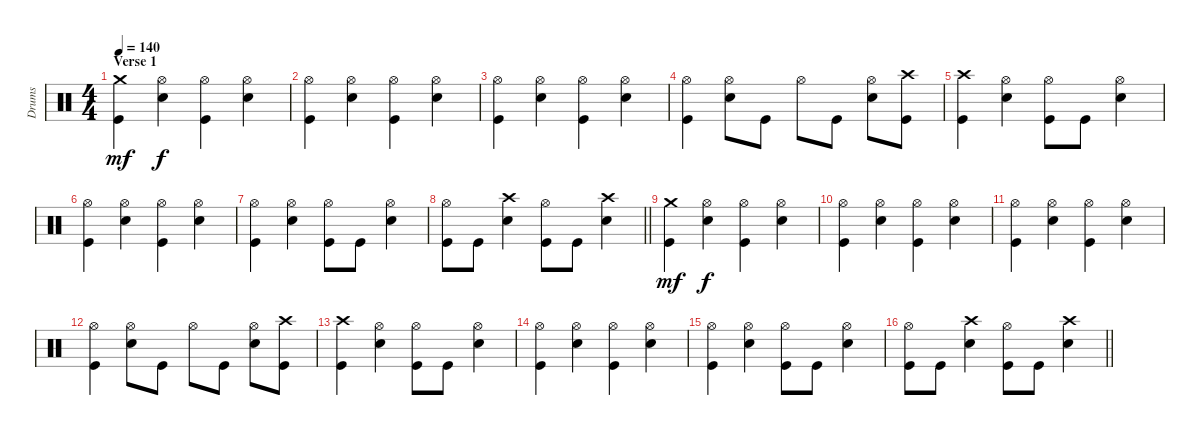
\track ("Drums" "Drums") {instrument percussion}
\staff {score}
\articulation defaults
\ts (4 4)
\section ("" "Verse 1")
\tempo 140
\clef neutral
\ks c
("Kick (hit)" "Crash medium (hit)").4{dy mf} ("Snare (hit) 2" "Hi-Hat (open)").4{dy f} ("Kick (hit)" "Hi-Hat (open)").4 ("Snare (hit) 2" "Hi-Hat (open)").4 |
("Kick (hit)" "Hi-Hat (open)").4 ("Snare (hit) 2" "Hi-Hat (open)").4 ("Kick (hit)" "Hi-Hat (open)").4 ("Snare (hit) 2" "Hi-Hat (open)").4 |
("Kick (hit)" "Hi-Hat (open)").4 ("Snare (hit) 2" "Hi-Hat (open)").4 ("Kick (hit)" "Hi-Hat (open)").4 ("Snare (hit) 2" "Hi-Hat (open)").4 |
("Kick (hit)" "Hi-Hat (open)").4 ("Snare (hit) 2" "Hi-Hat (open)").8 "Kick (hit)".8 "Hi-Hat (open)".8 "Kick (hit)".8 ("Snare (hit) 2" "Hi-Hat (open)").8 ("Kick (hit)" "Crash high (hit)").8 |
("Kick (hit)" "Crash high (hit)").4 ("Snare (hit) 2" "Hi-Hat (open)").4 ("Kick (hit)" "Hi-Hat (open)").8 "Kick (hit)".8 ("Snare (hit) 2" "Hi-Hat (open)").4 |
("Kick (hit)" "Hi-Hat (open)").4 ("Snare (hit) 2" "Hi-Hat (open)").4 ("Kick (hit)" "Hi-Hat (open)").4 ("Snare (hit) 2" "Hi-Hat (open)").4 |
("Kick (hit)" "Hi-Hat (open)").4 ("Snare (hit) 2" "Hi-Hat (open)").4 ("Kick (hit)" "Hi-Hat (open)").8 "Kick (hit)".8 ("Snare (hit) 2" "Hi-Hat (open)").4 |
\barLineRight lightlight
("Kick (hit)" "Hi-Hat (open)").8 "Kick (hit)".8 ("Snare (hit) 2" "Crash high (hit)").4 ("Kick (hit)" "Hi-Hat (open)").8 "Kick (hit)".8 ("Snare (hit) 2" "Crash high (hit)").4 |
("Kick (hit)" "Crash medium (hit)").4{dy mf} ("Snare (hit) 2" "Hi-Hat (open)").4{dy f} ("Kick (hit)" "Hi-Hat (open)").4 ("Snare (hit) 2" "Hi-Hat (open)").4 |
("Kick (hit)" "Hi-Hat (open)").4 ("Snare (hit) 2" "Hi-Hat (open)").4 ("Kick (hit)" "Hi-Hat (open)").4 ("Snare (hit) 2" "Hi-Hat (open)").4 |
("Kick (hit)" "Hi-Hat (open)").4 ("Snare (hit) 2" "Hi-Hat (open)").4 ("Kick (hit)" "Hi-Hat (open)").4 ("Snare (hit) 2" "Hi-Hat (open)").4 |
("Kick (hit)" "Hi-Hat (open)").4 ("Snare (hit) 2" "Hi-Hat (open)").8 "Kick (hit)".8 "Hi-Hat (open)".8 "Kick (hit)".8 ("Snare (hit) 2" "Hi-Hat (open)").8 ("Kick (hit)" "Crash high (hit)").8 |
("Kick (hit)" "Crash high (hit)").4 ("Snare (hit) 2" "Hi-Hat (open)").4 ("Kick (hit)" "Hi-Hat (open)").8 "Kick (hit)".8 ("Snare (hit) 2" "Hi-Hat (open)").4 |
("Kick (hit)" "Hi-Hat (open)").4 ("Snare (hit) 2" "Hi-Hat (open)").4 ("Kick (hit)" "Hi-Hat (open)").4 ("Snare (hit) 2" "Hi-Hat (open)").4 |
("Kick (hit)" "Hi-Hat (open)").4 ("Snare (hit) 2" "Hi-Hat (open)").4 ("Kick (hit)" "Hi-Hat (open)").8 "Kick (hit)".8 ("Snare (hit) 2" "Hi-Hat (open)").4 |
\barLineRight lightlight
("Kick (hit)" "Hi-Hat (open)").8 "Kick (hit)".8 ("Snare (hit) 2" "Crash high (hit)").4 ("Kick (hit)" "Hi-Hat (open)").8 "Kick (hit)".8 ("Snare (hit) 2" "Crash high (hit)").4
